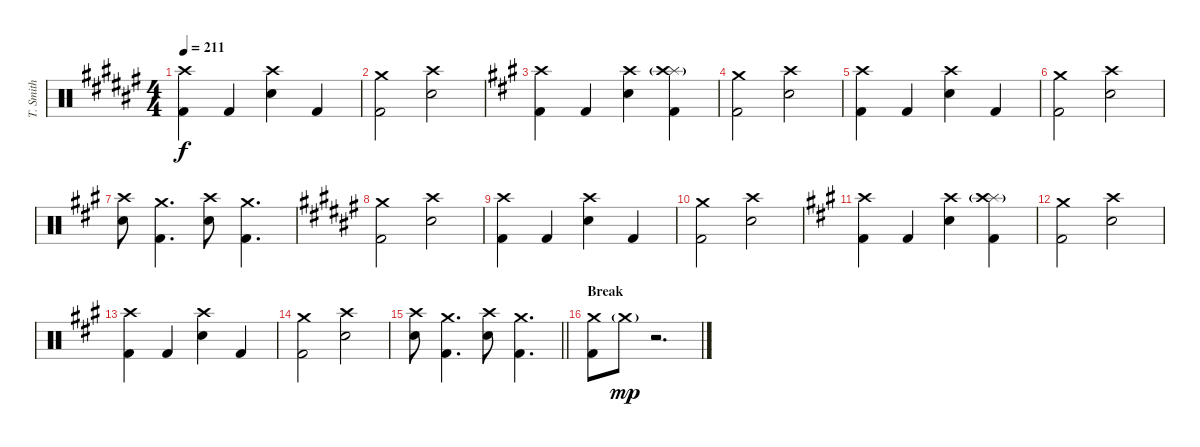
\track ("T. Smith" "T. Smith") {instrument percussion}
\staff {score}
\articulation defaults
\ts (4 4)
\tempo 211
\clef neutral
\ks d#minor
("Crash high (hit)" "Kick (hit) 2").4{dy f} "Kick (hit) 2".4 ("Crash high (hit)" "Electric Snare (hit)").4 "Kick (hit) 2".4 |
("Crash medium (hit)" "Kick (hit) 2").2 ("Crash high (hit)" "Electric Snare (hit)").2 |
\ks f#minor
("Crash high (hit)" "Kick (hit) 2").4 "Kick (hit) 2".4 ("Crash high (hit)" "Electric Snare (hit)").4 ("Splash (hit)" "Crash high (hit)"{g} "Kick (hit) 2").4 |
("Crash medium (hit)" "Kick (hit) 2").2 ("Crash high (hit)" "Electric Snare (hit)").2 |
("Crash high (hit)" "Kick (hit) 2").4 "Kick (hit) 2".4 ("Crash high (hit)" "Electric Snare (hit)").4 "Kick (hit) 2".4 |
("Crash medium (hit)" "Kick (hit) 2").2 ("Crash high (hit)" "Electric Snare (hit)").2 |
("Crash high (hit)" "Electric Snare (hit)").8 ("Crash medium (hit)" "Kick (hit) 2").4{d} ("Crash high (hit)" "Electric Snare (hit)").8 ("Crash medium (hit)" "Kick (hit) 2").4{d} |
\ks d#minor
("Crash medium (hit)" "Kick (hit) 2").2 ("Crash high (hit)" "Electric Snare (hit)").2 |
("Crash high (hit)" "Kick (hit) 2").4 "Kick (hit) 2".4 ("Crash high (hit)" "Electric Snare (hit)").4 "Kick (hit) 2".4 |
("Crash medium (hit)" "Kick (hit) 2").2 ("Crash high (hit)" "Electric Snare (hit)").2 |
\ks f#minor
("Crash high (hit)" "Kick (hit) 2").4 "Kick (hit) 2".4 ("Crash high (hit)" "Electric Snare (hit)").4 ("Splash (hit)" "Crash high (hit)"{g} "Kick (hit) 2").4 |
("Crash medium (hit)" "Kick (hit) 2").2 ("Crash high (hit)" "Electric Snare (hit)").2 |
("Crash high (hit)" "Kick (hit) 2").4 "Kick (hit) 2".4 ("Crash high (hit)" "Electric Snare (hit)").4 "Kick (hit) 2".4 |
("Crash medium (hit)" "Kick (hit) 2").2 ("Crash high (hit)" "Electric Snare (hit)").2 |
\barLineRight lightlight
("Crash high (hit)" "Electric Snare (hit)").8 ("Crash medium (hit)" "Kick (hit) 2").4{d} ("Crash high (hit)" "Electric Snare (hit)").8 ("Crash medium (hit)" "Kick (hit) 2").4{d} |
\section ("" "Break")
("Crash medium (hit)" "Kick (hit) 2").8 "Crash medium (hit)"{g}.8{dy mp volume 4} r.2{d}
